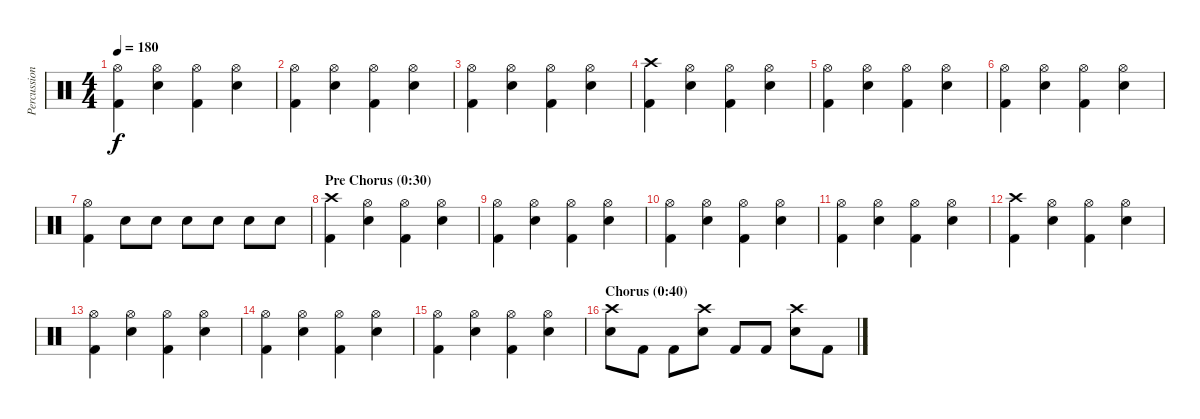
\track ("Percussion" "Percussion") {instrument percussion}
\staff {score}
\articulation defaults
\ts (4 4)
\tempo 180
\clef neutral
\ks c
("Hi-Hat (open)" "Kick (hit) 2").4{dy f} ("Hi-Hat (open)" "Electric Snare (hit)").4 ("Hi-Hat (open)" "Kick (hit) 2").4 ("Hi-Hat (open)" "Electric Snare (hit)").4 |
("Hi-Hat (open)" "Kick (hit) 2").4 ("Hi-Hat (open)" "Electric Snare (hit)").4 ("Hi-Hat (open)" "Kick (hit) 2").4 ("Hi-Hat (open)" "Electric Snare (hit)").4 |
("Hi-Hat (open)" "Kick (hit) 2").4 ("Hi-Hat (open)" "Electric Snare (hit)").4 ("Hi-Hat (open)" "Kick (hit) 2").4 ("Hi-Hat (open)" "Electric Snare (hit)").4 |
("Crash high (hit)" "Kick (hit) 2").4 ("Hi-Hat (open)" "Electric Snare (hit)").4 ("Hi-Hat (open)" "Kick (hit) 2").4 ("Hi-Hat (open)" "Electric Snare (hit)").4 |
("Hi-Hat (open)" "Kick (hit) 2").4 ("Hi-Hat (open)" "Electric Snare (hit)").4 ("Hi-Hat (open)" "Kick (hit) 2").4 ("Hi-Hat (open)" "Electric Snare (hit)").4 |
("Hi-Hat (open)" "Kick (hit) 2").4 ("Hi-Hat (open)" "Electric Snare (hit)").4 ("Hi-Hat (open)" "Kick (hit) 2").4 ("Hi-Hat (open)" "Electric Snare (hit)").4 |
("Hi-Hat (open)" "Kick (hit) 2").4 "Electric Snare (hit)".8 "Electric Snare (hit)".8 "Electric Snare (hit)".8 "Electric Snare (hit)".8 "Electric Snare (hit)".8 "Electric Snare (hit)".8 |
\section ("" "Pre Chorus (0:30)")
("Crash high (hit)" "Kick (hit) 2").4 ("Hi-Hat (open)" "Electric Snare (hit)").4 ("Hi-Hat (open)" "Kick (hit) 2").4 ("Hi-Hat (open)" "Electric Snare (hit)").4 |
("Hi-Hat (open)" "Kick (hit) 2").4 ("Hi-Hat (open)" "Electric Snare (hit)").4 ("Hi-Hat (open)" "Kick (hit) 2").4 ("Hi-Hat (open)" "Electric Snare (hit)").4 |
("Hi-Hat (open)" "Kick (hit) 2").4 ("Hi-Hat (open)" "Electric Snare (hit)").4 ("Hi-Hat (open)" "Kick (hit) 2").4 ("Hi-Hat (open)" "Electric Snare (hit)").4 |
("Hi-Hat (open)" "Kick (hit) 2").4 ("Hi-Hat (open)" "Electric Snare (hit)").4 ("Hi-Hat (open)" "Kick (hit) 2").4 ("Hi-Hat (open)" "Electric Snare (hit)").4 |
("Crash high (hit)" "Kick (hit) 2").4 ("Hi-Hat (open)" "Electric Snare (hit)").4 ("Hi-Hat (open)" "Kick (hit) 2").4 ("Hi-Hat (open)" "Electric Snare (hit)").4 |
("Hi-Hat (open)" "Kick (hit) 2").4 ("Hi-Hat (open)" "Electric Snare (hit)").4 ("Hi-Hat (open)" "Kick (hit) 2").4 ("Hi-Hat (open)" "Electric Snare (hit)").4 |
("Hi-Hat (open)" "Kick (hit) 2").4 ("Hi-Hat (open)" "Electric Snare (hit)").4 ("Hi-Hat (open)" "Kick (hit) 2").4 ("Hi-Hat (open)" "Electric Snare (hit)").4 |
("Hi-Hat (open)" "Kick (hit) 2").4 ("Hi-Hat (open)" "Electric Snare (hit)").4 ("Hi-Hat (open)" "Kick (hit) 2").4 ("Hi-Hat (open)" "Electric Snare (hit)").4 |
\section ("" "Chorus (0:40)")
("Crash high (hit)" "Electric Snare (hit)").8 "Kick (hit) 2".8 "Kick (hit) 2".8 ("Crash high (hit)" "Electric Snare (hit)").8 "Kick (hit) 2".8 "Kick (hit) 2".8 ("Crash high (hit)" "Electric Snare (hit)").8 "Kick (hit) 2".8
